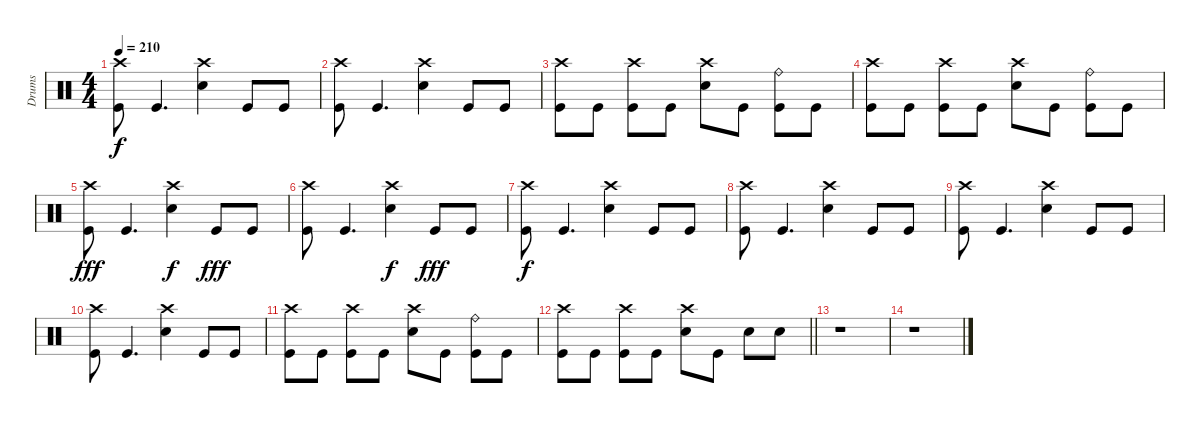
\track ("Drums" "Drums") {instrument percussion}
\staff {score}
\articulation defaults
\ts (4 4)
\tempo 210
\clef neutral
\ks c
("Crash high (hit)" "Kick (hit)").8{dy f} "Kick (hit)".4{d} ("Crash high (hit)" "Snare (hit) 2").4 "Kick (hit)".8 "Kick (hit)".8 |
("Crash high (hit)" "Kick (hit)").8 "Kick (hit)".4{d} ("Crash high (hit)" "Snare (hit) 2").4 "Kick (hit)".8 "Kick (hit)".8 |
("Crash high (hit)" "Kick (hit)").8 "Kick (hit)".8 ("Crash high (hit)" "Kick (hit)").8 "Kick (hit)".8 ("Crash high (hit)" "Snare (hit) 2").8 "Kick (hit)".8 ("Ride (bell)" "Kick (hit)").8 "Kick (hit)".8 |
("Crash high (hit)" "Kick (hit)").8 "Kick (hit)".8 ("Crash high (hit)" "Kick (hit)").8 "Kick (hit)".8 ("Crash high (hit)" "Snare (hit) 2").8 "Kick (hit)".8 ("Ride (bell)" "Kick (hit)").8 "Kick (hit)".8 |
("Crash high (hit)" "Kick (hit)").8{dy fff} "Kick (hit)".4{d} ("Crash high (hit)" "Snare (hit) 2").4{dy f} "Kick (hit)".8{dy fff} "Kick (hit)".8 |
("Crash high (hit)" "Kick (hit)").8 "Kick (hit)".4{d} ("Crash high (hit)" "Snare (hit) 2").4{dy f} "Kick (hit)".8{dy fff} "Kick (hit)".8 |
("Crash high (hit)" "Kick (hit)").8{dy f} "Kick (hit)".4{d} ("Crash high (hit)" "Snare (hit) 2").4 "Kick (hit)".8 "Kick (hit)".8 |
("Crash high (hit)" "Kick (hit)").8 "Kick (hit)".4{d} ("Crash high (hit)" "Snare (hit) 2").4 "Kick (hit)".8 "Kick (hit)".8 |
("Crash high (hit)" "Kick (hit)").8 "Kick (hit)".4{d} ("Crash high (hit)" "Snare (hit) 2").4 "Kick (hit)".8 "Kick (hit)".8 |
("Crash high (hit)" "Kick (hit)").8 "Kick (hit)".4{d} ("Crash high (hit)" "Snare (hit) 2").4 "Kick (hit)".8 "Kick (hit)".8 |
("Crash high (hit)" "Kick (hit)").8 "Kick (hit)".8 ("Crash high (hit)" "Kick (hit)").8 "Kick (hit)".8 ("Crash high (hit)" "Snare (hit) 2").8 "Kick (hit)".8 ("Ride (bell)" "Kick (hit)").8 "Kick (hit)".8 |
\barLineRight lightlight
("Crash high (hit)" "Kick (hit)").8 "Kick (hit)".8 ("Crash high (hit)" "Kick (hit)").8 "Kick (hit)".8 ("Crash high (hit)" "Snare (hit) 2").8 "Kick (hit)".8 "Snare (hit) 2".8 "Snare (hit) 2".8 |
r.1 |
r.1
